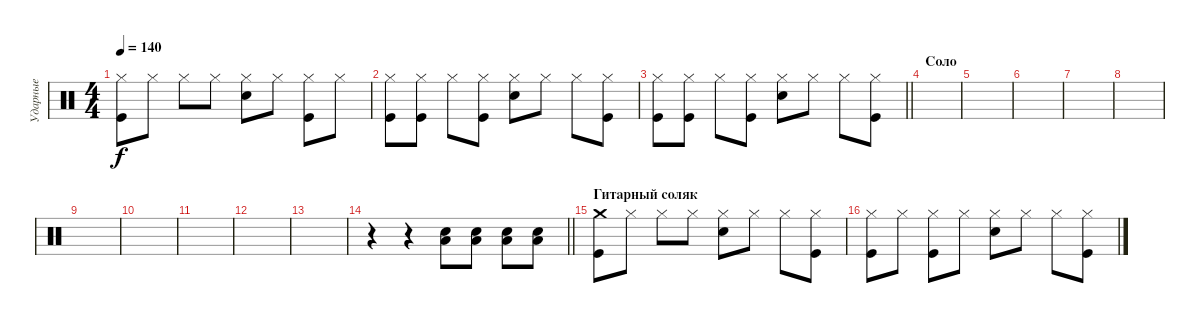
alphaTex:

\track ("Ударные" "Ударные") {instrument percussion}
\staff {score}
\articulation defaults
\ts (4 4)
\tempo 140
\clef neutral
\ks c
("Hi-Hat (closed)" "Kick (hit)").8{dy f} "Hi-Hat (closed)".8 "Hi-Hat (closed)".8 "Hi-Hat (closed)".8 ("Hi-Hat (closed)" "Snare (hit) 2").8 "Hi-Hat (closed)".8 ("Hi-Hat (closed)" "Kick (hit)").8 "Hi-Hat (closed)".8 |
("Hi-Hat (closed)" "Kick (hit)").8 ("Hi-Hat (closed)" "Kick (hit)").8 "Hi-Hat (closed)".8 ("Hi-Hat (closed)" "Kick (hit)").8 ("Hi-Hat (closed)" "Snare (hit) 2").8 "Hi-Hat (closed)".8 "Hi-Hat (closed)".8 ("Hi-Hat (closed)" "Kick (hit)").8 |
\barLineRight lightlight
("Hi-Hat (closed)" "Kick (hit)").8 ("Hi-Hat (closed)" "Kick (hit)").8 "Hi-Hat (closed)".8 ("Hi-Hat (closed)" "Kick (hit)").8 ("Hi-Hat (closed)" "Snare (hit) 2").8 "Hi-Hat (closed)".8 "Hi-Hat (closed)".8 ("Hi-Hat (closed)" "Kick (hit)").8 |
\section ("" "Соло")
|
|
|
|
|
|
|
|
|
|
\barLineRight lightlight
r.4 r.4 ("Snare (hit) 2" "Low Floor Tom (hit)").8 ("Snare (hit) 2" "Low Floor Tom (hit)").8 ("Snare (hit) 2" "Low Floor Tom (hit)").8 ("Snare (hit) 2" "Low Floor Tom (hit)").8 |
\section ("" "Гитарный соляк")
("Crash medium (hit)" "Kick (hit)").8 "Hi-Hat (closed)".8 "Hi-Hat (closed)".8 "Hi-Hat (closed)".8 ("Hi-Hat (closed)" "Snare (hit) 2").8 "Hi-Hat (closed)".8 "Hi-Hat (closed)".8 ("Hi-Hat (closed)" "Kick (hit)").8 |
("Hi-Hat (closed)" "Kick (hit)").8 "Hi-Hat (closed)".8 ("Hi-Hat (closed)" "Kick (hit)").8 "Hi-Hat (closed)".8 ("Hi-Hat (closed)" "Snare (hit) 2").8 "Hi-Hat (closed)".8 "Hi-Hat (closed)".8 ("Hi-Hat (closed)" "Kick (hit)").8
